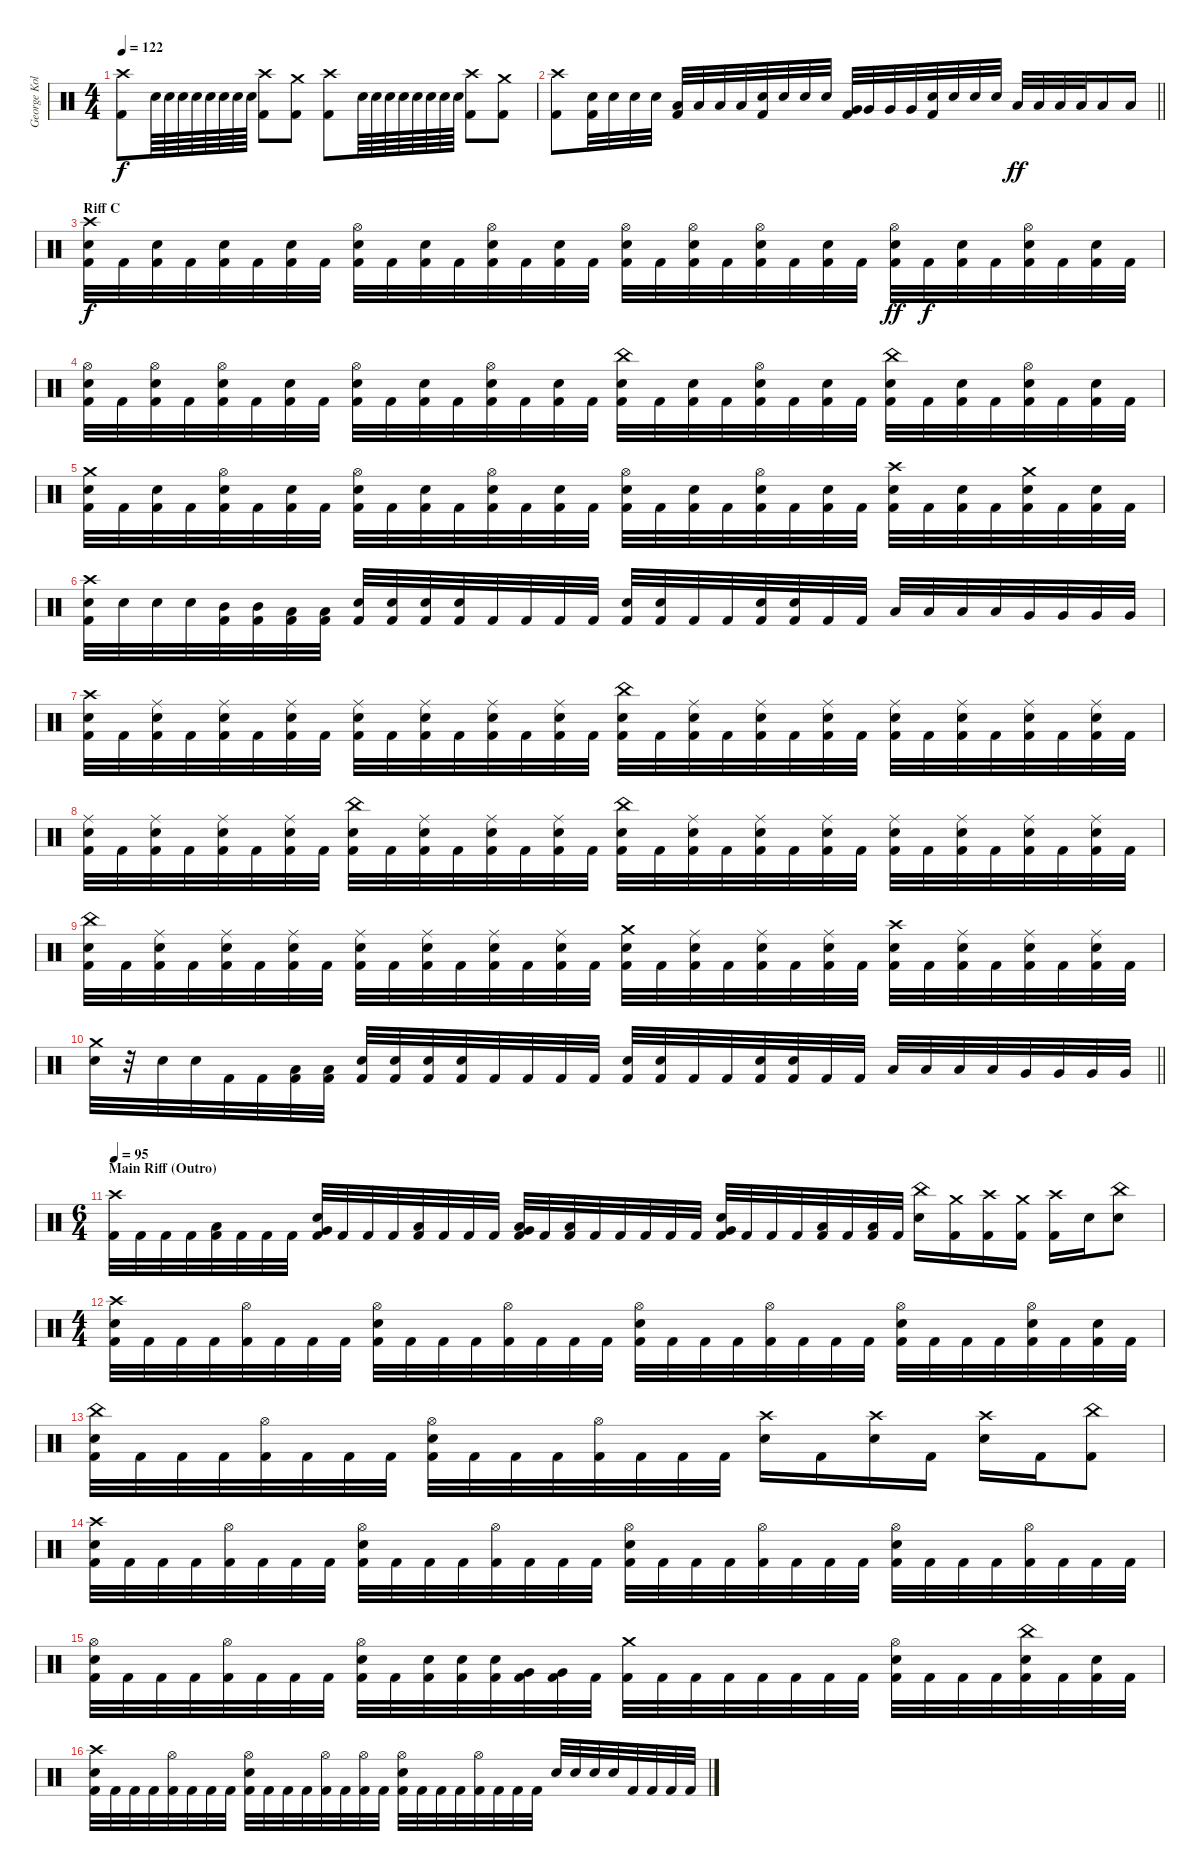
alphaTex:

\track ("George Kollias" "George Kol") {instrument percussion}
\staff {score}
\articulation defaults
\ts (4 4)
\tempo 122
\clef neutral
\ks c
("Crash high (hit)" "Kick (hit) 2").8{dy f} "Snare (hit) 2".64 "Snare (hit) 2".64 "Snare (hit) 2".64 "Snare (hit) 2".64 "Snare (hit) 2".64 "Snare (hit) 2".64 "Snare (hit) 2".64 "Snare (hit) 2".64 ("Crash high (hit)" "Kick (hit) 2").8 ("Crash medium (hit)" "Kick (hit) 2").8 ("Crash high (hit)" "Kick (hit) 2").8 "Snare (hit) 2".64 "Snare (hit) 2".64 "Snare (hit) 2".64 "Snare (hit) 2".64 "Snare (hit) 2".64 "Snare (hit) 2".64 "Snare (hit) 2".64 "Snare (hit) 2".64 ("Crash high (hit)" "Kick (hit) 2").8 ("Crash medium (hit)" "Kick (hit) 2").8 |
\barLineRight lightlight
("Crash high (hit)" "Kick (hit) 2").8 ("Snare (hit) 2" "Kick (hit) 2").32 "Snare (hit) 2".32 "Snare (hit) 2".32 "Snare (hit) 2".32 ("Low Tom (hit)" "Kick (hit) 2").32 "Low Tom (hit)".32 "Low Tom (hit)".32 "Low Tom (hit)".32 ("Snare (hit) 2" "Kick (hit) 2").32 "Snare (hit) 2".32 "Snare (hit) 2".32 "Snare (hit) 2".32 ("Very Low Tom (hit)" "Kick (hit) 2").32 "Very Low Tom (hit)".32 "Very Low Tom (hit)".32 "Very Low Tom (hit)".32 ("Snare (hit) 2" "Kick (hit) 2").32 "Snare (hit) 2".32 "Snare (hit) 2".32 "Snare (hit) 2".32 "Low Floor Tom (hit)".32{dy ff} "Low Floor Tom (hit)".32 "Low Floor Tom (hit)".32 "Low Floor Tom (hit)".32 "Low Floor Tom (hit)".16 "Low Floor Tom (hit)".16 |
\section ("" "Riff C")
("Crash high (hit)" "Snare (hit) 2" "Kick (hit) 2").32{dy f} "Kick (hit) 2".32 ("Snare (hit) 2" "Kick (hit) 2").32 "Kick (hit) 2".32 ("Snare (hit) 2" "Kick (hit) 2").32 "Kick (hit) 2".32 ("Snare (hit) 2" "Kick (hit) 2").32 "Kick (hit) 2".32 ("Hi-Hat (open)" "Snare (hit) 2" "Kick (hit) 2").32 "Kick (hit) 2".32 ("Snare (hit) 2" "Kick (hit) 2").32 "Kick (hit) 2".32 ("Hi-Hat (open)" "Snare (hit) 2" "Kick (hit) 2").32 "Kick (hit) 2".32 ("Snare (hit) 2" "Kick (hit) 2").32 "Kick (hit) 2".32 ("Hi-Hat (open)" "Snare (hit) 2" "Kick (hit) 2").32 "Kick (hit) 2".32 ("Hi-Hat (open)" "Snare (hit) 2" "Kick (hit) 2").32 "Kick (hit) 2".32 ("Hi-Hat (open)" "Snare (hit) 2" "Kick (hit) 2").32 "Kick (hit) 2".32 ("Snare (hit) 2" "Kick (hit) 2").32 "Kick (hit) 2".32 ("Hi-Hat (open)" "Snare (hit) 2" "Kick (hit) 2").32{dy ff} "Kick (hit) 2".32{dy f} ("Snare (hit) 2" "Kick (hit) 2").32 "Kick (hit) 2".32 ("Hi-Hat (open)" "Snare (hit) 2" "Kick (hit) 2").32 "Kick (hit) 2".32 ("Snare (hit) 2" "Kick (hit) 2").32 "Kick (hit) 2".32 |
("Hi-Hat (open)" "Snare (hit) 2" "Kick (hit) 2").32 "Kick (hit) 2".32 ("Hi-Hat (open)" "Snare (hit) 2" "Kick (hit) 2").32 "Kick (hit) 2".32 ("Hi-Hat (open)" "Snare (hit) 2" "Kick (hit) 2").32 "Kick (hit) 2".32 ("Snare (hit) 2" "Kick (hit) 2").32 "Kick (hit) 2".32 ("Hi-Hat (open)" "Snare (hit) 2" "Kick (hit) 2").32 "Kick (hit) 2".32 ("Snare (hit) 2" "Kick (hit) 2").32 "Kick (hit) 2".32 ("Hi-Hat (open)" "Snare (hit) 2" "Kick (hit) 2").32 "Kick (hit) 2".32 ("Snare (hit) 2" "Kick (hit) 2").32 "Kick (hit) 2".32 ("China (hit)" "Snare (hit) 2" "Kick (hit) 2").32 "Kick (hit) 2".32 ("Snare (hit) 2" "Kick (hit) 2").32 "Kick (hit) 2".32 ("Hi-Hat (open)" "Snare (hit) 2" "Kick (hit) 2").32 "Kick (hit) 2".32 ("Snare (hit) 2" "Kick (hit) 2").32 "Kick (hit) 2".32 ("China (hit)" "Snare (hit) 2" "Kick (hit) 2").32 "Kick (hit) 2".32 ("Snare (hit) 2" "Kick (hit) 2").32 "Kick (hit) 2".32 ("Hi-Hat (open)" "Snare (hit) 2" "Kick (hit) 2").32 "Kick (hit) 2".32 ("Snare (hit) 2" "Kick (hit) 2").32 "Kick (hit) 2".32 |
("Crash medium (hit)" "Snare (hit) 2" "Kick (hit) 2").32 "Kick (hit) 2".32 ("Snare (hit) 2" "Kick (hit) 2").32 "Kick (hit) 2".32 ("Hi-Hat (open)" "Snare (hit) 2" "Kick (hit) 2").32 "Kick (hit) 2".32 ("Snare (hit) 2" "Kick (hit) 2").32 "Kick (hit) 2".32 ("Hi-Hat (open)" "Snare (hit) 2" "Kick (hit) 2").32 "Kick (hit) 2".32 ("Snare (hit) 2" "Kick (hit) 2").32 "Kick (hit) 2".32 ("Hi-Hat (open)" "Snare (hit) 2" "Kick (hit) 2").32 "Kick (hit) 2".32 ("Snare (hit) 2" "Kick (hit) 2").32 "Kick (hit) 2".32 ("Hi-Hat (open)" "Snare (hit) 2" "Kick (hit) 2").32 "Kick (hit) 2".32 ("Snare (hit) 2" "Kick (hit) 2").32 "Kick (hit) 2".32 ("Hi-Hat (open)" "Snare (hit) 2" "Kick (hit) 2").32 "Kick (hit) 2".32 ("Snare (hit) 2" "Kick (hit) 2").32 "Kick (hit) 2".32 ("Crash high (hit)" "Snare (hit) 2" "Kick (hit) 2").32 "Kick (hit) 2".32 ("Snare (hit) 2" "Kick (hit) 2").32 "Kick (hit) 2".32 ("Crash medium (hit)" "Snare (hit) 2" "Kick (hit) 2").32 "Kick (hit) 2".32 ("Snare (hit) 2" "Kick (hit) 2").32 "Kick (hit) 2".32 |
("Crash high (hit)" "Snare (hit) 2" "Kick (hit) 2").32 "Snare (hit) 2".32 "Snare (hit) 2".32 "Snare (hit) 2".32 ("Mid Tom (hit)" "Kick (hit) 2").32 ("Mid Tom (hit)" "Kick (hit) 2").32 ("Low Tom (hit)" "Kick (hit) 2").32 ("Low Tom (hit)" "Kick (hit) 2").32 ("Snare (hit) 2" "Kick (hit) 2").32 ("Snare (hit) 2" "Kick (hit) 2").32 ("Snare (hit) 2" "Kick (hit) 2").32 ("Snare (hit) 2" "Kick (hit) 2").32 "Kick (hit) 2".32 "Kick (hit) 2".32 "Kick (hit) 2".32 "Kick (hit) 2".32 ("Snare (hit) 2" "Kick (hit) 2").32 ("Snare (hit) 2" "Kick (hit) 2").32 "Kick (hit) 2".32 "Kick (hit) 2".32 ("Snare (hit) 2" "Kick (hit) 2").32 ("Snare (hit) 2" "Kick (hit) 2").32 "Kick (hit) 2".32 "Kick (hit) 2".32 "Low Tom (hit)".32 "Low Tom (hit)".32 "Low Tom (hit)".32 "Low Tom (hit)".32 "Very Low Tom (hit)".32 "Very Low Tom (hit)".32 "Very Low Tom (hit)".32 "Very Low Tom (hit)".32 |
("Crash high (hit)" "Snare (hit) 2" "Kick (hit) 2").32 "Kick (hit) 2".32 ("Ride (middle)" "Snare (hit) 2" "Kick (hit) 2").32 "Kick (hit) 2".32 ("Ride (middle)" "Snare (hit) 2" "Kick (hit) 2").32 "Kick (hit) 2".32 ("Ride (middle)" "Snare (hit) 2" "Kick (hit) 2").32 "Kick (hit) 2".32 ("Ride (middle)" "Snare (hit) 2" "Kick (hit) 2").32 "Kick (hit) 2".32 ("Ride (middle)" "Snare (hit) 2" "Kick (hit) 2").32 "Kick (hit) 2".32 ("Ride (middle)" "Snare (hit) 2" "Kick (hit) 2").32 "Kick (hit) 2".32 ("Ride (middle)" "Snare (hit) 2" "Kick (hit) 2").32 "Kick (hit) 2".32 ("China (hit)" "Snare (hit) 2" "Kick (hit) 2").32 "Kick (hit) 2".32 ("Ride (middle)" "Snare (hit) 2" "Kick (hit) 2").32 "Kick (hit) 2".32 ("Ride (middle)" "Snare (hit) 2" "Kick (hit) 2").32 "Kick (hit) 2".32 ("Ride (middle)" "Snare (hit) 2" "Kick (hit) 2").32 "Kick (hit) 2".32 ("Ride (middle)" "Snare (hit) 2" "Kick (hit) 2").32 "Kick (hit) 2".32 ("Ride (middle)" "Snare (hit) 2" "Kick (hit) 2").32 "Kick (hit) 2".32 ("Ride (middle)" "Snare (hit) 2" "Kick (hit) 2").32 "Kick (hit) 2".32 ("Ride (middle)" "Snare (hit) 2" "Kick (hit) 2").32 "Kick (hit) 2".32 |
("Ride (middle)" "Snare (hit) 2" "Kick (hit) 2").32 "Kick (hit) 2".32 ("Ride (middle)" "Snare (hit) 2" "Kick (hit) 2").32 "Kick (hit) 2".32 ("Ride (middle)" "Snare (hit) 2" "Kick (hit) 2").32 "Kick (hit) 2".32 ("Ride (middle)" "Snare (hit) 2" "Kick (hit) 2").32 "Kick (hit) 2".32 ("China (hit)" "Snare (hit) 2" "Kick (hit) 2").32 "Kick (hit) 2".32 ("Ride (middle)" "Snare (hit) 2" "Kick (hit) 2").32 "Kick (hit) 2".32 ("Ride (middle)" "Snare (hit) 2" "Kick (hit) 2").32 "Kick (hit) 2".32 ("Ride (middle)" "Snare (hit) 2" "Kick (hit) 2").32 "Kick (hit) 2".32 ("China (hit)" "Snare (hit) 2" "Kick (hit) 2").32 "Kick (hit) 2".32 ("Ride (middle)" "Snare (hit) 2" "Kick (hit) 2").32 "Kick (hit) 2".32 ("Ride (middle)" "Snare (hit) 2" "Kick (hit) 2").32 "Kick (hit) 2".32 ("Ride (middle)" "Snare (hit) 2" "Kick (hit) 2").32 "Kick (hit) 2".32 ("Ride (middle)" "Snare (hit) 2" "Kick (hit) 2").32 "Kick (hit) 2".32 ("Ride (middle)" "Snare (hit) 2" "Kick (hit) 2").32 "Kick (hit) 2".32 ("Ride (middle)" "Snare (hit) 2" "Kick (hit) 2").32 "Kick (hit) 2".32 ("Ride (middle)" "Snare (hit) 2" "Kick (hit) 2").32 "Kick (hit) 2".32 |
("China (hit)" "Snare (hit) 2" "Kick (hit) 2").32 "Kick (hit) 2".32 ("Ride (middle)" "Snare (hit) 2" "Kick (hit) 2").32 "Kick (hit) 2".32 ("Ride (middle)" "Snare (hit) 2" "Kick (hit) 2").32 "Kick (hit) 2".32 ("Ride (middle)" "Snare (hit) 2" "Kick (hit) 2").32 "Kick (hit) 2".32 ("Ride (middle)" "Snare (hit) 2" "Kick (hit) 2").32 "Kick (hit) 2".32 ("Ride (middle)" "Snare (hit) 2" "Kick (hit) 2").32 "Kick (hit) 2".32 ("Ride (middle)" "Snare (hit) 2" "Kick (hit) 2").32 "Kick (hit) 2".32 ("Ride (middle)" "Snare (hit) 2" "Kick (hit) 2").32 "Kick (hit) 2".32 ("Crash medium (hit)" "Snare (hit) 2" "Kick (hit) 2").32 "Kick (hit) 2".32 ("Ride (middle)" "Snare (hit) 2" "Kick (hit) 2").32 "Kick (hit) 2".32 ("Ride (middle)" "Snare (hit) 2" "Kick (hit) 2").32 "Kick (hit) 2".32 ("Ride (middle)" "Snare (hit) 2" "Kick (hit) 2").32 "Kick (hit) 2".32 ("Crash high (hit)" "Snare (hit) 2" "Kick (hit) 2").32 "Kick (hit) 2".32 ("Ride (middle)" "Snare (hit) 2" "Kick (hit) 2").32 "Kick (hit) 2".32 ("Ride (middle)" "Snare (hit) 2" "Kick (hit) 2").32 "Kick (hit) 2".32 ("Ride (middle)" "Snare (hit) 2" "Kick (hit) 2").32 "Kick (hit) 2".32 |
\barLineRight lightlight
("Crash medium (hit)" "Snare (hit) 2").32 r.32 "Snare (hit) 2".32 "Snare (hit) 2".32 "Kick (hit) 2".32 "Kick (hit) 2".32 ("Low Tom (hit)" "Kick (hit) 2").32 ("Low Tom (hit)" "Kick (hit) 2").32 ("Snare (hit) 2" "Kick (hit) 2").32 ("Snare (hit) 2" "Kick (hit) 2").32 ("Snare (hit) 2" "Kick (hit) 2").32 ("Snare (hit) 2" "Kick (hit) 2").32 "Kick (hit) 2".32 "Kick (hit) 2".32 "Kick (hit) 2".32 "Kick (hit) 2".32 ("Snare (hit) 2" "Kick (hit) 2").32 ("Snare (hit) 2" "Kick (hit) 2").32 "Kick (hit) 2".32 "Kick (hit) 2".32 ("Snare (hit) 2" "Kick (hit) 2").32 ("Snare (hit) 2" "Kick (hit) 2").32 "Kick (hit) 2".32 "Kick (hit) 2".32 "Low Tom (hit)".32 "Low Tom (hit)".32 "Low Tom (hit)".32 "Low Tom (hit)".32 "Very Low Tom (hit)".32 "Very Low Tom (hit)".32 "Very Low Tom (hit)".32 "Very Low Tom (hit)".32 |
\ts (6 4)
\section ("" "Main Riff (Outro)")
\tempo 95
("Crash high (hit)" "Kick (hit) 2").32 "Kick (hit) 2".32 "Kick (hit) 2".32 "Kick (hit) 2".32 ("Low Floor Tom (hit)" "Kick (hit) 2").32 "Kick (hit) 2".32 "Kick (hit) 2".32 "Kick (hit) 2".32 ("Very Low Tom (hit)" "Snare (hit) 2" "Kick (hit) 2").32 "Kick (hit) 2".32 "Kick (hit) 2".32 "Kick (hit) 2".32 ("Low Floor Tom (hit)" "Kick (hit) 2").32 "Kick (hit) 2".32 "Kick (hit) 2".32 "Kick (hit) 2".32 ("Very Low Tom (hit)" "Low Floor Tom (hit)" "Kick (hit) 2").32 "Kick (hit) 2".32 ("Low Floor Tom (hit)" "Kick (hit) 2").32 "Kick (hit) 2".32 "Kick (hit) 2".32 "Kick (hit) 2".32 "Kick (hit) 2".32 "Kick (hit) 2".32 ("Very Low Tom (hit)" "Snare (hit) 2" "Kick (hit) 2").32 "Kick (hit) 2".32 "Kick (hit) 2".32 "Kick (hit) 2".32 ("Low Floor Tom (hit)" "Kick (hit) 2").32 "Kick (hit) 2".32 ("Low Floor Tom (hit)" "Kick (hit) 2").32 "Kick (hit) 2".32 ("China (hit)" "Snare (hit) 2").16 ("Crash medium (hit)" "Kick (hit) 2").16 ("Crash high (hit)" "Kick (hit) 2").16 ("Crash medium (hit)" "Kick (hit) 2").16 ("Crash high (hit)" "Kick (hit) 2").16 "Snare (hit) 2".16 ("China (hit)" "Snare (hit) 2").8 |
\ts (4 4)
("Crash high (hit)" "Snare (hit) 2" "Kick (hit) 2").32 "Kick (hit) 2".32 "Kick (hit) 2".32 "Kick (hit) 2".32 ("Hi-Hat (open)" "Kick (hit) 2").32 "Kick (hit) 2".32 "Kick (hit) 2".32 "Kick (hit) 2".32 ("Hi-Hat (open)" "Snare (hit) 2" "Kick (hit) 2").32 "Kick (hit) 2".32 "Kick (hit) 2".32 "Kick (hit) 2".32 ("Hi-Hat (open)" "Kick (hit) 2").32 "Kick (hit) 2".32 "Kick (hit) 2".32 "Kick (hit) 2".32 ("Hi-Hat (open)" "Snare (hit) 2" "Kick (hit) 2").32 "Kick (hit) 2".32 "Kick (hit) 2".32 "Kick (hit) 2".32 ("Hi-Hat (open)" "Kick (hit) 2").32 "Kick (hit) 2".32 "Kick (hit) 2".32 "Kick (hit) 2".32 ("Hi-Hat (open)" "Snare (hit) 2" "Kick (hit) 2").32 "Kick (hit) 2".32 "Kick (hit) 2".32 "Kick (hit) 2".32 ("Hi-Hat (open)" "Snare (hit) 2" "Kick (hit) 2").32 "Kick (hit) 2".32 ("Snare (hit) 2" "Kick (hit) 2").32 "Kick (hit) 2".32 |
("China (hit)" "Snare (hit) 2" "Kick (hit) 2").32 "Kick (hit) 2".32 "Kick (hit) 2".32 "Kick (hit) 2".32 ("Hi-Hat (open)" "Kick (hit) 2").32 "Kick (hit) 2".32 "Kick (hit) 2".32 "Kick (hit) 2".32 ("Hi-Hat (open)" "Snare (hit) 2" "Kick (hit) 2").32 "Kick (hit) 2".32 "Kick (hit) 2".32 "Kick (hit) 2".32 ("Hi-Hat (open)" "Kick (hit) 2").32 "Kick (hit) 2".32 "Kick (hit) 2".32 "Kick (hit) 2".32 ("Crash high (hit)" "Snare (hit) 2").16 "Kick (hit) 2".16 ("Crash high (hit)" "Snare (hit) 2").16 "Kick (hit) 2".16 ("Crash high (hit)" "Snare (hit) 2").16 "Kick (hit) 2".16 ("China (hit)" "Kick (hit) 2").8 |
("Crash high (hit)" "Snare (hit) 2" "Kick (hit) 2").32 "Kick (hit) 2".32 "Kick (hit) 2".32 "Kick (hit) 2".32 ("Hi-Hat (open)" "Kick (hit) 2").32 "Kick (hit) 2".32 "Kick (hit) 2".32 "Kick (hit) 2".32 ("Hi-Hat (open)" "Snare (hit) 2" "Kick (hit) 2").32 "Kick (hit) 2".32 "Kick (hit) 2".32 "Kick (hit) 2".32 ("Hi-Hat (open)" "Kick (hit) 2").32 "Kick (hit) 2".32 "Kick (hit) 2".32 "Kick (hit) 2".32 ("Hi-Hat (open)" "Snare (hit) 2" "Kick (hit) 2").32 "Kick (hit) 2".32 "Kick (hit) 2".32 "Kick (hit) 2".32 ("Hi-Hat (open)" "Kick (hit) 2").32 "Kick (hit) 2".32 "Kick (hit) 2".32 "Kick (hit) 2".32 ("Hi-Hat (open)" "Snare (hit) 2" "Kick (hit) 2").32 "Kick (hit) 2".32 "Kick (hit) 2".32 "Kick (hit) 2".32 ("Hi-Hat (open)" "Kick (hit) 2").32 "Kick (hit) 2".32 "Kick (hit) 2".32 "Kick (hit) 2".32 |
("Hi-Hat (open)" "Snare (hit) 2" "Kick (hit) 2").32 "Kick (hit) 2".32 "Kick (hit) 2".32 "Kick (hit) 2".32 ("Hi-Hat (open)" "Kick (hit) 2").32 "Kick (hit) 2".32 "Kick (hit) 2".32 "Kick (hit) 2".32 ("Hi-Hat (open)" "Snare (hit) 2" "Kick (hit) 2").32 "Kick (hit) 2".32 ("Snare (hit) 2" "Kick (hit) 2").32 ("Snare (hit) 2" "Kick (hit) 2").32 ("Snare (hit) 2" "Kick (hit) 2").32 ("Very Low Tom (hit)" "Kick (hit) 2").32 ("Very Low Tom (hit)" "Kick (hit) 2").32 "Kick (hit) 2".32 ("Crash medium (hit)" "Kick (hit) 2").32 "Kick (hit) 2".32 "Kick (hit) 2".32 "Kick (hit) 2".32 "Kick (hit) 2".32 "Kick (hit) 2".32 "Kick (hit) 2".32 "Kick (hit) 2".32 ("Hi-Hat (open)" "Snare (hit) 2" "Kick (hit) 2").32 "Kick (hit) 2".32 "Kick (hit) 2".32 "Kick (hit) 2".32 ("China (hit)" "Snare (hit) 2" "Kick (hit) 2").32 "Kick (hit) 2".32 ("Snare (hit) 2" "Kick (hit) 2").32 "Kick (hit) 2".32 |
("Crash high (hit)" "Snare (hit) 2" "Kick (hit) 2").32 "Kick (hit) 2".32 "Kick (hit) 2".32 "Kick (hit) 2".32 ("Hi-Hat (open)" "Kick (hit) 2").32 "Kick (hit) 2".32 "Kick (hit) 2".32 "Kick (hit) 2".32 ("Hi-Hat (open)" "Snare (hit) 2" "Kick (hit) 2").32 "Kick (hit) 2".32 "Kick (hit) 2".32 "Kick (hit) 2".32 ("Hi-Hat (open)" "Kick (hit) 2").32 "Kick (hit) 2".32 ("Hi-Hat (open)" "Kick (hit) 2").32 "Kick (hit) 2".32 ("Hi-Hat (open)" "Snare (hit) 2" "Kick (hit) 2").32 "Kick (hit) 2".32 "Kick (hit) 2".32 "Kick (hit) 2".32 ("Hi-Hat (open)" "Kick (hit) 2").32 "Kick (hit) 2".32 "Kick (hit) 2".32 "Kick (hit) 2".32 "Snare (hit) 2".32 "Snare (hit) 2".32 "Snare (hit) 2".32 "Snare (hit) 2".32 "Kick (hit) 2".32 "Kick (hit) 2".32 "Kick (hit) 2".32 "Kick (hit) 2".32
